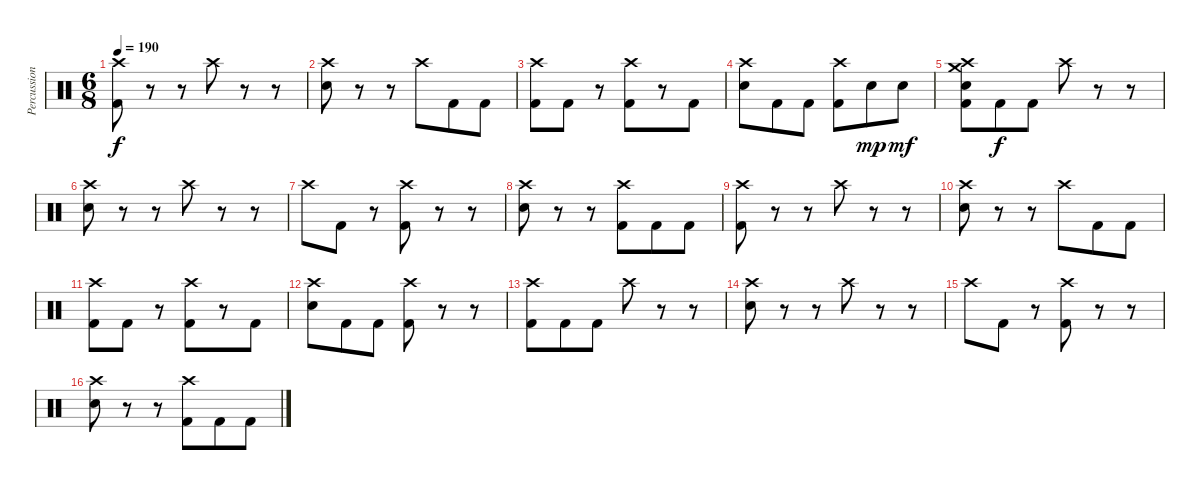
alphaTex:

\track ("Percussion" "Percussion") {instrument percussion}
\staff {score}
\articulation defaults
\ts (6 8)
\tempo 190
\clef neutral
\ks c
("Crash high (hit)" "Kick (hit) 2").8{dy f} r.8 r.8 "Crash high (hit)".8 r.8 r.8 |
("Crash high (hit)" "Electric Snare (hit)").8 r.8 r.8 "Crash high (hit)".8 "Kick (hit) 2".8 "Kick (hit) 2".8 |
("Crash high (hit)" "Kick (hit) 2").8 "Kick (hit) 2".8 r.8 ("Crash high (hit)" "Kick (hit) 2").8 r.8 "Kick (hit) 2".8 |
("Crash high (hit)" "Electric Snare (hit)").8 "Kick (hit) 2".8 "Kick (hit) 2".8 ("Crash high (hit)" "Kick (hit) 2").8 "Electric Snare (hit)".8{dy mp} "Electric Snare (hit)".8{dy mf} |
("Crash high (hit)" "Crash medium (hit)" "Electric Snare (hit)" "Kick (hit) 2").8 "Kick (hit) 2".8{dy f} "Kick (hit) 2".8 "Crash high (hit)".8 r.8 r.8 |
("Crash high (hit)" "Electric Snare (hit)").8 r.8 r.8 "Crash high (hit)".8 r.8 r.8 |
"Crash high (hit)".8 "Kick (hit) 2".8 r.8 ("Crash high (hit)" "Kick (hit) 2").8 r.8 r.8 |
("Crash high (hit)" "Electric Snare (hit)").8 r.8 r.8 ("Crash high (hit)" "Kick (hit) 2").8 "Kick (hit) 2".8 "Kick (hit) 2".8 |
("Crash high (hit)" "Kick (hit) 2").8 r.8 r.8 "Crash high (hit)".8 r.8 r.8 |
("Crash high (hit)" "Electric Snare (hit)").8 r.8 r.8 "Crash high (hit)".8 "Kick (hit) 2".8 "Kick (hit) 2".8 |
("Crash high (hit)" "Kick (hit) 2").8 "Kick (hit) 2".8 r.8 ("Crash high (hit)" "Kick (hit) 2").8 r.8 "Kick (hit) 2".8 |
("Crash high (hit)" "Electric Snare (hit)").8 "Kick (hit) 2".8 "Kick (hit) 2".8 ("Crash high (hit)" "Kick (hit) 2").8 r.8 r.8 |
("Crash high (hit)" "Kick (hit) 2").8 "Kick (hit) 2".8 "Kick (hit) 2".8 "Crash high (hit)".8 r.8 r.8 |
("Crash high (hit)" "Electric Snare (hit)").8 r.8 r.8 "Crash high (hit)".8 r.8 r.8 |
"Crash high (hit)".8 "Kick (hit) 2".8 r.8 ("Crash high (hit)" "Kick (hit) 2").8 r.8 r.8 |
("Crash high (hit)" "Electric Snare (hit)").8 r.8 r.8 ("Crash high (hit)" "Kick (hit) 2").8 "Kick (hit) 2".8 "Kick (hit) 2".8
